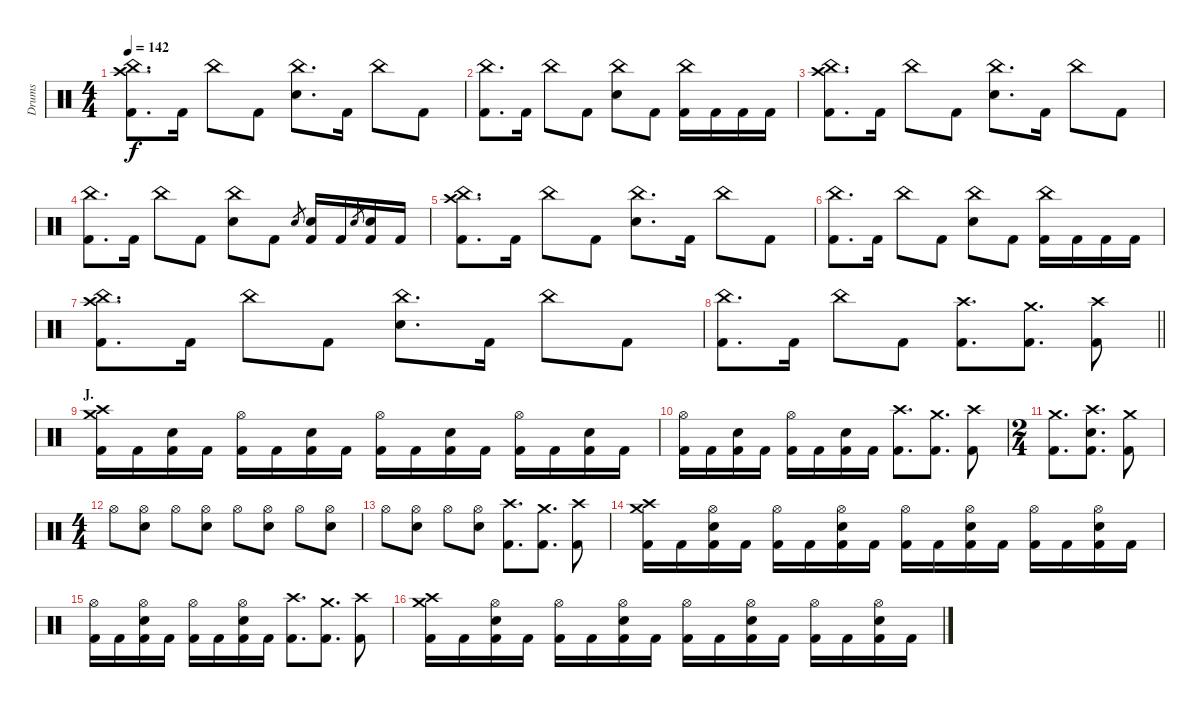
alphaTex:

\track ("Drums" "Drums") {instrument percussion}
\staff {score}
\articulation defaults
\ts (4 4)
\tempo 142
\clef neutral
\ks c
("China (hit)" "Crash high (hit)" "Kick (hit) 2").8{d dy f} "Kick (hit) 2".16 "China (hit)".8 "Kick (hit) 2".8 ("China (hit)" "Electric Snare (hit)").8{d} "Kick (hit) 2".16 "China (hit)".8 "Kick (hit) 2".8 |
("China (hit)" "Kick (hit) 2").8{d} "Kick (hit) 2".16 "China (hit)".8 "Kick (hit) 2".8 ("China (hit)" "Electric Snare (hit)").8 "Kick (hit) 2".8 ("China (hit)" "Kick (hit) 2").16 "Kick (hit) 2".16 "Kick (hit) 2".16 "Kick (hit) 2".16 |
("China (hit)" "Crash high (hit)" "Kick (hit) 2").8{d} "Kick (hit) 2".16 "China (hit)".8 "Kick (hit) 2".8 ("China (hit)" "Electric Snare (hit)").8{d} "Kick (hit) 2".16 "China (hit)".8 "Kick (hit) 2".8 |
("China (hit)" "Kick (hit) 2").8{d} "Kick (hit) 2".16 "China (hit)".8 "Kick (hit) 2".8 ("China (hit)" "Electric Snare (hit)").8 "Kick (hit) 2".8 "Electric Snare (hit)".8{gr} ("Electric Snare (hit)" "Kick (hit) 2").16 "Kick (hit) 2".16 "Electric Snare (hit)".8{gr} ("Electric Snare (hit)" "Kick (hit) 2").16 "Kick (hit) 2".16 |
("China (hit)" "Crash high (hit)" "Kick (hit) 2").8{d} "Kick (hit) 2".16 "China (hit)".8 "Kick (hit) 2".8 ("China (hit)" "Electric Snare (hit)").8{d} "Kick (hit) 2".16 "China (hit)".8 "Kick (hit) 2".8 |
("China (hit)" "Kick (hit) 2").8{d} "Kick (hit) 2".16 "China (hit)".8 "Kick (hit) 2".8 ("China (hit)" "Electric Snare (hit)").8 "Kick (hit) 2".8 ("China (hit)" "Kick (hit) 2").16 "Kick (hit) 2".16 "Kick (hit) 2".16 "Kick (hit) 2".16 |
("China (hit)" "Crash high (hit)" "Kick (hit) 2").8{d} "Kick (hit) 2".16 "China (hit)".8 "Kick (hit) 2".8 ("China (hit)" "Electric Snare (hit)").8{d} "Kick (hit) 2".16 "China (hit)".8 "Kick (hit) 2".8 |
\barLineRight lightlight
("China (hit)" "Kick (hit) 2").8{d} "Kick (hit) 2".16 "China (hit)".8 "Kick (hit) 2".8 ("Crash high (hit)" "Kick (hit) 2").8{d} ("Crash medium (hit)" "Kick (hit) 2").8{d} ("Crash high (hit)" "Kick (hit) 2").8 |
\section ("" "J.")
("Crash medium (hit)" "Crash high (hit)" "Kick (hit) 2").16 "Kick (hit) 2".16 ("Electric Snare (hit)" "Kick (hit) 2").16 "Kick (hit) 2".16 ("Hi-Hat (open)" "Kick (hit) 2").16 "Kick (hit) 2".16 ("Electric Snare (hit)" "Kick (hit) 2").16 "Kick (hit) 2".16 ("Hi-Hat (open)" "Kick (hit) 2").16 "Kick (hit) 2".16 ("Electric Snare (hit)" "Kick (hit) 2").16 "Kick (hit) 2".16 ("Hi-Hat (open)" "Kick (hit) 2").16 "Kick (hit) 2".16 ("Electric Snare (hit)" "Kick (hit) 2").16 "Kick (hit) 2".16 |
("Hi-Hat (open)" "Kick (hit) 2").16 "Kick (hit) 2".16 ("Electric Snare (hit)" "Kick (hit) 2").16 "Kick (hit) 2".16 ("Hi-Hat (open)" "Kick (hit) 2").16 "Kick (hit) 2".16 ("Electric Snare (hit)" "Kick (hit) 2").16 "Kick (hit) 2".16 ("Crash high (hit)" "Kick (hit) 2").8{d} ("Crash medium (hit)" "Kick (hit) 2").8{d} ("Crash high (hit)" "Kick (hit) 2").8 |
\ts (2 4)
("Crash medium (hit)" "Kick (hit) 2").8{d} ("Crash high (hit)" "Electric Snare (hit)" "Kick (hit) 2").8{d} ("Crash medium (hit)" "Kick (hit) 2").8 |
\ts (4 4)
"Hi-Hat (open)".8 ("Hi-Hat (open)" "Electric Snare (hit)").8 "Hi-Hat (open)".8 ("Hi-Hat (open)" "Electric Snare (hit)").8 "Hi-Hat (open)".8 ("Hi-Hat (open)" "Electric Snare (hit)").8 "Hi-Hat (open)".8 ("Hi-Hat (open)" "Electric Snare (hit)").8 |
"Hi-Hat (open)".8 ("Hi-Hat (open)" "Electric Snare (hit)").8 "Hi-Hat (open)".8 ("Hi-Hat (open)" "Electric Snare (hit)").8 ("Crash high (hit)" "Kick (hit) 2").8{d} ("Crash medium (hit)" "Kick (hit) 2").8{d} ("Crash high (hit)" "Kick (hit) 2").8 |
("Crash medium (hit)" "Crash high (hit)" "Kick (hit) 2").16 "Kick (hit) 2".16 ("Hi-Hat (open)" "Electric Snare (hit)" "Kick (hit) 2").16 "Kick (hit) 2".16 ("Hi-Hat (open)" "Kick (hit) 2").16 "Kick (hit) 2".16 ("Hi-Hat (open)" "Electric Snare (hit)" "Kick (hit) 2").16 "Kick (hit) 2".16 ("Hi-Hat (open)" "Kick (hit) 2").16 "Kick (hit) 2".16 ("Hi-Hat (open)" "Electric Snare (hit)" "Kick (hit) 2").16 "Kick (hit) 2".16 ("Hi-Hat (open)" "Kick (hit) 2").16 "Kick (hit) 2".16 ("Hi-Hat (open)" "Electric Snare (hit)" "Kick (hit) 2").16 "Kick (hit) 2".16 |
("Hi-Hat (open)" "Kick (hit) 2").16 "Kick (hit) 2".16 ("Hi-Hat (open)" "Electric Snare (hit)" "Kick (hit) 2").16 "Kick (hit) 2".16 ("Hi-Hat (open)" "Kick (hit) 2").16 "Kick (hit) 2".16 ("Hi-Hat (open)" "Electric Snare (hit)" "Kick (hit) 2").16 "Kick (hit) 2".16 ("Crash high (hit)" "Kick (hit) 2").8{d} ("Crash medium (hit)" "Kick (hit) 2").8{d} ("Crash high (hit)" "Kick (hit) 2").8 |
("Crash medium (hit)" "Crash high (hit)" "Kick (hit) 2").16 "Kick (hit) 2".16 ("Hi-Hat (open)" "Electric Snare (hit)" "Kick (hit) 2").16 "Kick (hit) 2".16 ("Hi-Hat (open)" "Kick (hit) 2").16 "Kick (hit) 2".16 ("Hi-Hat (open)" "Electric Snare (hit)" "Kick (hit) 2").16 "Kick (hit) 2".16 ("Hi-Hat (open)" "Kick (hit) 2").16 "Kick (hit) 2".16 ("Hi-Hat (open)" "Electric Snare (hit)" "Kick (hit) 2").16 "Kick (hit) 2".16 ("Hi-Hat (open)" "Kick (hit) 2").16 "Kick (hit) 2".16 ("Hi-Hat (open)" "Electric Snare (hit)" "Kick (hit) 2").16 "Kick (hit) 2".16
